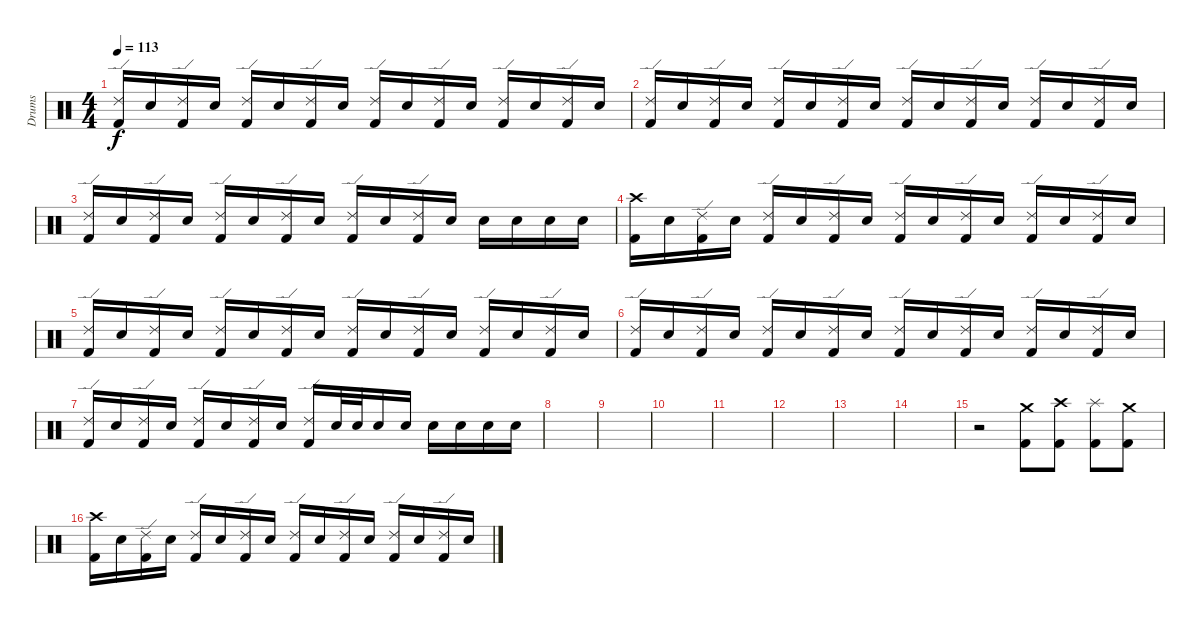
\track ("Drums" "Drums") {instrument percussion}
\staff {score}
\articulation defaults
\ts (4 4)
\tempo 113
\clef neutral
\ks c
("Kick (hit) 2" "Ride (edge) 2").16{dy f} "Electric Snare (hit)".16 ("Kick (hit) 2" "Ride (edge) 2").16 "Electric Snare (hit)".16 ("Kick (hit) 2" "Ride (edge) 2").16 "Electric Snare (hit)".16 ("Kick (hit) 2" "Ride (edge) 2").16 "Electric Snare (hit)".16 ("Kick (hit) 2" "Ride (edge) 2").16 "Electric Snare (hit)".16 ("Kick (hit) 2" "Ride (edge) 2").16 "Electric Snare (hit)".16 ("Kick (hit) 2" "Ride (edge) 2").16 "Electric Snare (hit)".16 ("Kick (hit) 2" "Ride (edge) 2").16 "Electric Snare (hit)".16 |
("Kick (hit) 2" "Ride (edge) 2").16 "Electric Snare (hit)".16 ("Kick (hit) 2" "Ride (edge) 2").16 "Electric Snare (hit)".16 ("Kick (hit) 2" "Ride (edge) 2").16 "Electric Snare (hit)".16 ("Kick (hit) 2" "Ride (edge) 2").16 "Electric Snare (hit)".16 ("Kick (hit) 2" "Ride (edge) 2").16 "Electric Snare (hit)".16 ("Kick (hit) 2" "Ride (edge) 2").16 "Electric Snare (hit)".16 ("Kick (hit) 2" "Ride (edge) 2").16 "Electric Snare (hit)".16 ("Kick (hit) 2" "Ride (edge) 2").16 "Electric Snare (hit)".16 |
("Kick (hit) 2" "Ride (edge) 2").16 "Electric Snare (hit)".16 ("Kick (hit) 2" "Ride (edge) 2").16 "Electric Snare (hit)".16 ("Kick (hit) 2" "Ride (edge) 2").16 "Electric Snare (hit)".16 ("Kick (hit) 2" "Ride (edge) 2").16 "Electric Snare (hit)".16 ("Kick (hit) 2" "Ride (edge) 2").16 "Electric Snare (hit)".16 ("Kick (hit) 2" "Ride (edge) 2").16 "Electric Snare (hit)".16 "Electric Snare (hit)".16 "Electric Snare (hit)".16 "Electric Snare (hit)".16 "Electric Snare (hit)".16 |
("Kick (hit) 2" "Crash high (hit)").16 "Electric Snare (hit)".16 ("Kick (hit) 2" "Ride (edge) 2").16 "Electric Snare (hit)".16 ("Kick (hit) 2" "Ride (edge) 2").16 "Electric Snare (hit)".16 ("Kick (hit) 2" "Ride (edge) 2").16 "Electric Snare (hit)".16 ("Kick (hit) 2" "Ride (edge) 2").16 "Electric Snare (hit)".16 ("Kick (hit) 2" "Ride (edge) 2").16 "Electric Snare (hit)".16 ("Kick (hit) 2" "Ride (edge) 2").16 "Electric Snare (hit)".16 ("Kick (hit) 2" "Ride (edge) 2").16 "Electric Snare (hit)".16 |
("Kick (hit) 2" "Ride (edge) 2").16 "Electric Snare (hit)".16 ("Kick (hit) 2" "Ride (edge) 2").16 "Electric Snare (hit)".16 ("Kick (hit) 2" "Ride (edge) 2").16 "Electric Snare (hit)".16 ("Kick (hit) 2" "Ride (edge) 2").16 "Electric Snare (hit)".16 ("Kick (hit) 2" "Ride (edge) 2").16 "Electric Snare (hit)".16 ("Kick (hit) 2" "Ride (edge) 2").16 "Electric Snare (hit)".16 ("Kick (hit) 2" "Ride (edge) 2").16 "Electric Snare (hit)".16 ("Kick (hit) 2" "Ride (edge) 2").16 "Electric Snare (hit)".16 |
("Kick (hit) 2" "Ride (edge) 2").16 "Electric Snare (hit)".16 ("Kick (hit) 2" "Ride (edge) 2").16 "Electric Snare (hit)".16 ("Kick (hit) 2" "Ride (edge) 2").16 "Electric Snare (hit)".16 ("Kick (hit) 2" "Ride (edge) 2").16 "Electric Snare (hit)".16 ("Kick (hit) 2" "Ride (edge) 2").16 "Electric Snare (hit)".16 ("Kick (hit) 2" "Ride (edge) 2").16 "Electric Snare (hit)".16 ("Kick (hit) 2" "Ride (edge) 2").16 "Electric Snare (hit)".16 ("Kick (hit) 2" "Ride (edge) 2").16 "Electric Snare (hit)".16 |
("Kick (hit) 2" "Ride (edge) 2").16 "Electric Snare (hit)".16 ("Kick (hit) 2" "Ride (edge) 2").16 "Electric Snare (hit)".16 ("Kick (hit) 2" "Ride (edge) 2").16 "Electric Snare (hit)".16 ("Kick (hit) 2" "Ride (edge) 2").16 "Electric Snare (hit)".16 ("Kick (hit) 2" "Ride (edge) 2").16 "Electric Snare (hit)".32 "Electric Snare (hit)".32 "Electric Snare (hit)".16 "Electric Snare (hit)".16 "Electric Snare (hit)".16 "Electric Snare (hit)".16 "Electric Snare (hit)".16 "Electric Snare (hit)".16 |
|
|
|
|
|
|
|
r.2 ("Kick (hit) 2" "Crash medium (hit)").8 ("Kick (hit) 2" "Crash high (hit)").8 ("Kick (hit) 2" "Splash (hit)").8 ("Kick (hit) 2" "Crash medium (hit)").8 |
("Kick (hit) 2" "Crash high (hit)").16 "Electric Snare (hit)".16 ("Kick (hit) 2" "Ride (edge) 2").16 "Electric Snare (hit)".16 ("Kick (hit) 2" "Ride (edge) 2").16 "Electric Snare (hit)".16 ("Kick (hit) 2" "Ride (edge) 2").16 "Electric Snare (hit)".16 ("Kick (hit) 2" "Ride (edge) 2").16 "Electric Snare (hit)".16 ("Kick (hit) 2" "Ride (edge) 2").16 "Electric Snare (hit)".16 ("Kick (hit) 2" "Ride (edge) 2").16 "Electric Snare (hit)".16 ("Kick (hit) 2" "Ride (edge) 2").16 "Electric Snare (hit)".16
